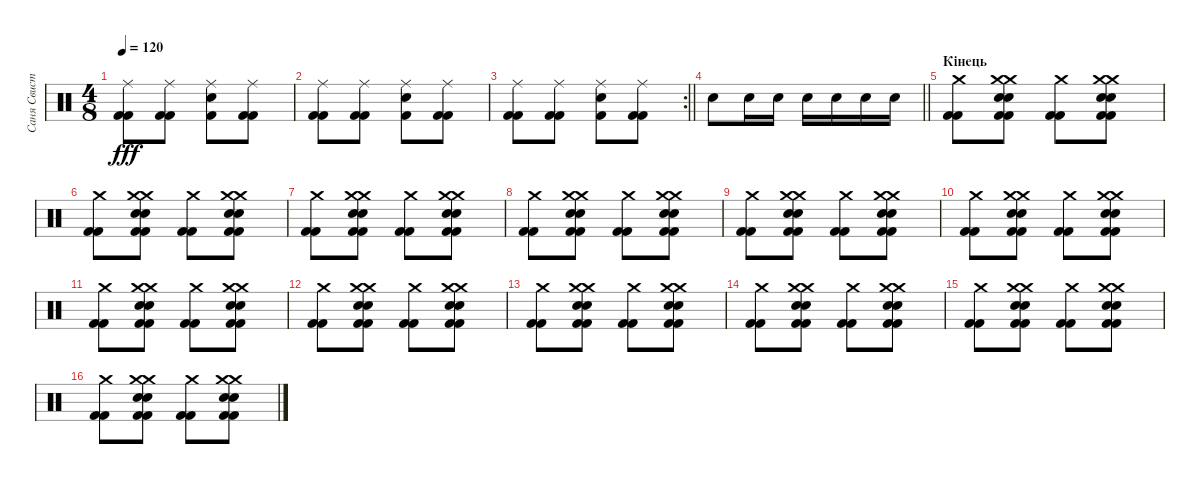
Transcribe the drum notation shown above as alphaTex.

\track ("Саня Свистун - Drums" "Саня Свист") {instrument percussion}
\staff {score}
\articulation defaults
\ts (4 8)
\tempo 120
\clef neutral
\ks c
("Kick (hit) 2" "Kick (hit) 2" "Ride (middle)").8{dy fff} ("Kick (hit) 2" "Kick (hit) 2" "Ride (middle)").8 ("Electric Snare (hit)" "Kick (hit) 2" "Ride (middle)").8 ("Kick (hit) 2" "Kick (hit) 2" "Ride (middle)").8 |
("Kick (hit) 2" "Kick (hit) 2" "Ride (middle)").8 ("Kick (hit) 2" "Kick (hit) 2" "Ride (middle)").8 ("Electric Snare (hit)" "Kick (hit) 2" "Ride (middle)").8 ("Kick (hit) 2" "Kick (hit) 2" "Ride (middle)").8 |
\rc 2
\barLineRight lightlight
("Kick (hit) 2" "Kick (hit) 2" "Ride (middle)").8 ("Kick (hit) 2" "Kick (hit) 2" "Ride (middle)").8 ("Electric Snare (hit)" "Kick (hit) 2" "Ride (middle)").8 ("Kick (hit) 2" "Kick (hit) 2" "Ride (middle)").8 |
\barLineRight lightlight "Electric Snare (hit)".8 "Electric Snare (hit)".16 "Electric Snare (hit)".16 "Electric Snare (hit)".16 "Electric Snare (hit)".16 "Electric Snare (hit)".16 "Electric Snare (hit)".16
|
\section ("" "Кінець")
("Kick (hit) 2" "Crash medium (hit)" "Kick (hit) 2").8 ("Kick (hit) 2" "Crash medium (hit)" "Electric Snare (hit)" "Electric Snare (hit)" "Crash medium (hit)" "Kick (hit) 2").8 ("Kick (hit) 2" "Crash medium (hit)" "Kick (hit) 2").8 ("Kick (hit) 2" "Crash medium (hit)" "Crash medium (hit)" "Electric Snare (hit)" "Electric Snare (hit)" "Kick (hit) 2").8 |
("Kick (hit) 2" "Crash medium (hit)" "Kick (hit) 2").8 ("Kick (hit) 2" "Crash medium (hit)" "Electric Snare (hit)" "Electric Snare (hit)" "Crash medium (hit)" "Kick (hit) 2").8 ("Kick (hit) 2" "Crash medium (hit)" "Kick (hit) 2").8 ("Kick (hit) 2" "Crash medium (hit)" "Crash medium (hit)" "Electric Snare (hit)" "Electric Snare (hit)" "Kick (hit) 2").8 |
("Kick (hit) 2" "Crash medium (hit)" "Kick (hit) 2").8 ("Kick (hit) 2" "Crash medium (hit)" "Electric Snare (hit)" "Electric Snare (hit)" "Crash medium (hit)" "Kick (hit) 2").8 ("Kick (hit) 2" "Crash medium (hit)" "Kick (hit) 2").8 ("Kick (hit) 2" "Crash medium (hit)" "Crash medium (hit)" "Electric Snare (hit)" "Electric Snare (hit)" "Kick (hit) 2").8 |
("Kick (hit) 2" "Crash medium (hit)" "Kick (hit) 2").8 ("Kick (hit) 2" "Crash medium (hit)" "Electric Snare (hit)" "Electric Snare (hit)" "Crash medium (hit)" "Kick (hit) 2").8 ("Kick (hit) 2" "Crash medium (hit)" "Kick (hit) 2").8 ("Kick (hit) 2" "Crash medium (hit)" "Crash medium (hit)" "Electric Snare (hit)" "Electric Snare (hit)" "Kick (hit) 2").8 |
("Kick (hit) 2" "Crash medium (hit)" "Kick (hit) 2").8 ("Kick (hit) 2" "Crash medium (hit)" "Electric Snare (hit)" "Electric Snare (hit)" "Crash medium (hit)" "Kick (hit) 2").8 ("Kick (hit) 2" "Crash medium (hit)" "Kick (hit) 2").8 ("Kick (hit) 2" "Crash medium (hit)" "Crash medium (hit)" "Electric Snare (hit)" "Electric Snare (hit)" "Kick (hit) 2").8 |
("Kick (hit) 2" "Crash medium (hit)" "Kick (hit) 2").8 ("Kick (hit) 2" "Crash medium (hit)" "Electric Snare (hit)" "Electric Snare (hit)" "Crash medium (hit)" "Kick (hit) 2").8 ("Kick (hit) 2" "Crash medium (hit)" "Kick (hit) 2").8 ("Kick (hit) 2" "Crash medium (hit)" "Crash medium (hit)" "Electric Snare (hit)" "Electric Snare (hit)" "Kick (hit) 2").8 |
("Kick (hit) 2" "Crash medium (hit)" "Kick (hit) 2").8 ("Kick (hit) 2" "Crash medium (hit)" "Electric Snare (hit)" "Electric Snare (hit)" "Crash medium (hit)" "Kick (hit) 2").8 ("Kick (hit) 2" "Crash medium (hit)" "Kick (hit) 2").8 ("Kick (hit) 2" "Crash medium (hit)" "Crash medium (hit)" "Electric Snare (hit)" "Electric Snare (hit)" "Kick (hit) 2").8 |
("Kick (hit) 2" "Crash medium (hit)" "Kick (hit) 2").8 ("Kick (hit) 2" "Crash medium (hit)" "Electric Snare (hit)" "Electric Snare (hit)" "Crash medium (hit)" "Kick (hit) 2").8 ("Kick (hit) 2" "Crash medium (hit)" "Kick (hit) 2").8 ("Kick (hit) 2" "Crash medium (hit)" "Crash medium (hit)" "Electric Snare (hit)" "Electric Snare (hit)" "Kick (hit) 2").8 |
("Kick (hit) 2" "Crash medium (hit)" "Kick (hit) 2").8 ("Kick (hit) 2" "Crash medium (hit)" "Electric Snare (hit)" "Electric Snare (hit)" "Crash medium (hit)" "Kick (hit) 2").8 ("Kick (hit) 2" "Crash medium (hit)" "Kick (hit) 2").8 ("Kick (hit) 2" "Crash medium (hit)" "Crash medium (hit)" "Electric Snare (hit)" "Electric Snare (hit)" "Kick (hit) 2").8 |
("Kick (hit) 2" "Crash medium (hit)" "Kick (hit) 2").8 ("Kick (hit) 2" "Crash medium (hit)" "Electric Snare (hit)" "Electric Snare (hit)" "Crash medium (hit)" "Kick (hit) 2").8 ("Kick (hit) 2" "Crash medium (hit)" "Kick (hit) 2").8 ("Kick (hit) 2" "Crash medium (hit)" "Crash medium (hit)" "Electric Snare (hit)" "Electric Snare (hit)" "Kick (hit) 2").8 |
("Kick (hit) 2" "Crash medium (hit)" "Kick (hit) 2").8 ("Kick (hit) 2" "Crash medium (hit)" "Electric Snare (hit)" "Electric Snare (hit)" "Crash medium (hit)" "Kick (hit) 2").8 ("Kick (hit) 2" "Crash medium (hit)" "Kick (hit) 2").8 ("Kick (hit) 2" "Crash medium (hit)" "Crash medium (hit)" "Electric Snare (hit)" "Electric Snare (hit)" "Kick (hit) 2").8 |
("Kick (hit) 2" "Crash medium (hit)" "Kick (hit) 2").8 ("Kick (hit) 2" "Crash medium (hit)" "Electric Snare (hit)" "Electric Snare (hit)" "Crash medium (hit)" "Kick (hit) 2").8 ("Kick (hit) 2" "Crash medium (hit)" "Kick (hit) 2").8 ("Kick (hit) 2" "Crash medium (hit)" "Crash medium (hit)" "Electric Snare (hit)" "Electric Snare (hit)" "Kick (hit) 2").8
